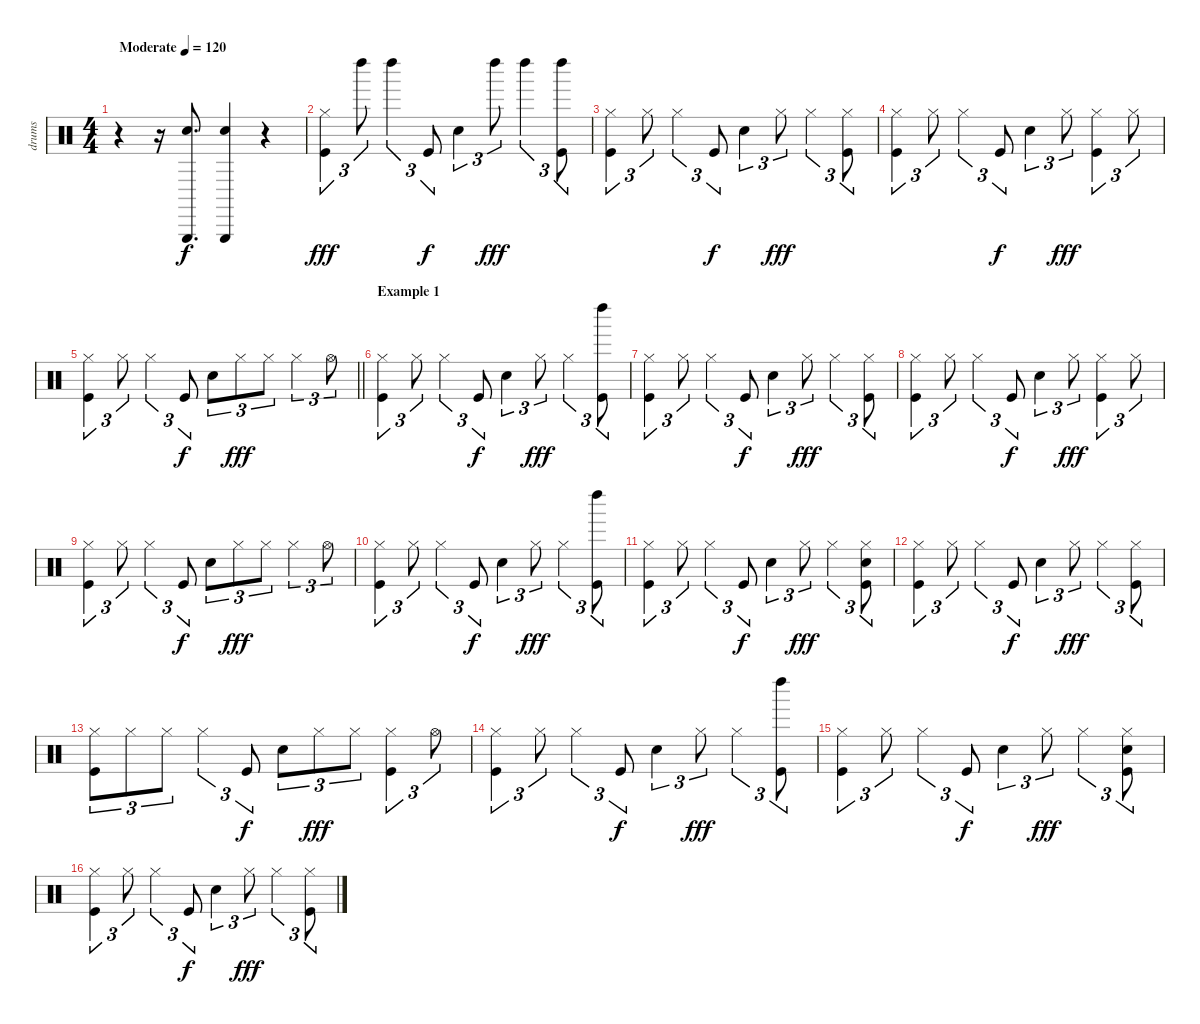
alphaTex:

\track ("drums" "drums") {instrument percussion}
\staff {score}
\articulation defaults
\ts (4 4)
\tempo (120 "Moderate")
\clef neutral
\ks c
r.4{dy f} r.16 ("Triangle (hit)" "Metronome (bell)").8{d} ("Triangle (hit)" "Metronome (bell)").4 r.4 |
("Hi-Hat (closed)" "Kick (hit)").4{tu (3 2) dy fff} "Left Maraca (hit)".8{tu (3 2)} "Left Maraca (hit)".4{tu (3 2)} "Kick (hit)".8{tu (3 2) dy f} "Snare (hit) 2".4{tu (3 2)} "Left Maraca (hit)".8{tu (3 2) dy fff} "Left Maraca (hit)".4{tu (3 2)} ("Left Maraca (hit)" "Kick (hit)").8{tu (3 2)} |
("Hi-Hat (closed)" "Kick (hit)").4{tu (3 2)} "Hi-Hat (closed)".8{tu (3 2)} "Hi-Hat (closed)".4{tu (3 2)} "Kick (hit)".8{tu (3 2) dy f} "Snare (hit) 2".4{tu (3 2)} "Hi-Hat (closed)".8{tu (3 2) dy fff} "Hi-Hat (closed)".4{tu (3 2)} ("Hi-Hat (closed)" "Kick (hit)").8{tu (3 2)} |
("Hi-Hat (closed)" "Kick (hit)").4{tu (3 2)} "Hi-Hat (closed)".8{tu (3 2)} "Hi-Hat (closed)".4{tu (3 2)} "Kick (hit)".8{tu (3 2) dy f} "Snare (hit) 2".4{tu (3 2)} "Hi-Hat (closed)".8{tu (3 2) dy fff} ("Hi-Hat (closed)" "Kick (hit)").4{tu (3 2)} "Hi-Hat (closed)".8{tu (3 2)} |
\barLineRight lightlight
("Hi-Hat (closed)" "Kick (hit)").4{tu (3 2)} "Hi-Hat (closed)".8{tu (3 2)} "Hi-Hat (closed)".4{tu (3 2)} "Kick (hit)".8{tu (3 2) dy f} "Snare (hit) 2".8{tu (3 2)} "Hi-Hat (closed)".8{tu (3 2) dy fff} "Hi-Hat (closed)".8{tu (3 2)} "Hi-Hat (closed)".4{tu (3 2)} "Hi-Hat (open)".8{tu (3 2)} |
\section ("" "Example 1")
("Hi-Hat (closed)" "Kick (hit)").4{tu (3 2)} "Hi-Hat (closed)".8{tu (3 2)} "Hi-Hat (closed)".4{tu (3 2)} "Kick (hit)".8{tu (3 2) dy f} "Snare (hit) 2".4{tu (3 2)} "Hi-Hat (closed)".8{tu (3 2) dy fff} "Hi-Hat (closed)".4{tu (3 2)} ("Left Maraca (hit)" "Kick (hit)").8{tu (3 2)} |
("Hi-Hat (closed)" "Kick (hit)").4{tu (3 2)} "Hi-Hat (closed)".8{tu (3 2)} "Hi-Hat (closed)".4{tu (3 2)} "Kick (hit)".8{tu (3 2) dy f} "Snare (hit) 2".4{tu (3 2)} "Hi-Hat (closed)".8{tu (3 2) dy fff} "Hi-Hat (closed)".4{tu (3 2)} ("Hi-Hat (closed)" "Kick (hit)").8{tu (3 2)} |
("Hi-Hat (closed)" "Kick (hit)").4{tu (3 2)} "Hi-Hat (closed)".8{tu (3 2)} "Hi-Hat (closed)".4{tu (3 2)} "Kick (hit)".8{tu (3 2) dy f} "Snare (hit) 2".4{tu (3 2)} "Hi-Hat (closed)".8{tu (3 2) dy fff} ("Hi-Hat (closed)" "Kick (hit)").4{tu (3 2)} "Hi-Hat (closed)".8{tu (3 2)} |
("Hi-Hat (closed)" "Kick (hit)").4{tu (3 2)} "Hi-Hat (closed)".8{tu (3 2)} "Hi-Hat (closed)".4{tu (3 2)} "Kick (hit)".8{tu (3 2) dy f} "Snare (hit) 2".8{tu (3 2)} "Hi-Hat (closed)".8{tu (3 2) dy fff} "Hi-Hat (closed)".8{tu (3 2)} "Hi-Hat (closed)".4{tu (3 2)} "Hi-Hat (open)".8{tu (3 2)} |
("Hi-Hat (closed)" "Kick (hit)").4{tu (3 2)} "Hi-Hat (closed)".8{tu (3 2)} "Hi-Hat (closed)".4{tu (3 2)} "Kick (hit)".8{tu (3 2) dy f} "Snare (hit) 2".4{tu (3 2)} "Hi-Hat (closed)".8{tu (3 2) dy fff} "Hi-Hat (closed)".4{tu (3 2)} ("Left Maraca (hit)" "Kick (hit)").8{tu (3 2)} |
("Hi-Hat (closed)" "Kick (hit)").4{tu (3 2)} "Hi-Hat (closed)".8{tu (3 2)} "Hi-Hat (closed)".4{tu (3 2)} "Kick (hit)".8{tu (3 2) dy f} "Snare (hit) 2".4{tu (3 2)} "Hi-Hat (closed)".8{tu (3 2) dy fff} "Hi-Hat (closed)".4{tu (3 2)} ("Snare (hit) 2" "Hi-Hat (closed)" "Kick (hit)").8{tu (3 2)} |
("Hi-Hat (closed)" "Kick (hit)").4{tu (3 2)} "Hi-Hat (closed)".8{tu (3 2)} "Hi-Hat (closed)".4{tu (3 2)} "Kick (hit)".8{tu (3 2) dy f} "Snare (hit) 2".4{tu (3 2)} "Hi-Hat (closed)".8{tu (3 2) dy fff} "Hi-Hat (closed)".4{tu (3 2)} ("Hi-Hat (closed)" "Kick (hit)").8{tu (3 2)} |
("Hi-Hat (closed)" "Kick (hit)").8{tu (3 2)} "Hi-Hat (closed)".8{tu (3 2)} "Hi-Hat (closed)".8{tu (3 2)} "Hi-Hat (closed)".4{tu (3 2)} "Kick (hit)".8{tu (3 2) dy f} "Snare (hit) 2".8{tu (3 2)} "Hi-Hat (closed)".8{tu (3 2) dy fff} "Hi-Hat (closed)".8{tu (3 2)} ("Hi-Hat (closed)" "Kick (hit)").4{tu (3 2)} "Hi-Hat (open)".8{tu (3 2)} |
("Hi-Hat (closed)" "Kick (hit)").4{tu (3 2)} "Hi-Hat (closed)".8{tu (3 2)} "Hi-Hat (closed)".4{tu (3 2)} "Kick (hit)".8{tu (3 2) dy f} "Snare (hit) 2".4{tu (3 2)} "Hi-Hat (closed)".8{tu (3 2) dy fff} "Hi-Hat (closed)".4{tu (3 2)} ("Left Maraca (hit)" "Kick (hit)").8{tu (3 2)} |
("Hi-Hat (closed)" "Kick (hit)").4{tu (3 2)} "Hi-Hat (closed)".8{tu (3 2)} "Hi-Hat (closed)".4{tu (3 2)} "Kick (hit)".8{tu (3 2) dy f} "Snare (hit) 2".4{tu (3 2)} "Hi-Hat (closed)".8{tu (3 2) dy fff} "Hi-Hat (closed)".4{tu (3 2)} ("Snare (hit) 2" "Hi-Hat (closed)" "Kick (hit)").8{tu (3 2)} |
("Hi-Hat (closed)" "Kick (hit)").4{tu (3 2)} "Hi-Hat (closed)".8{tu (3 2)} "Hi-Hat (closed)".4{tu (3 2)} "Kick (hit)".8{tu (3 2) dy f} "Snare (hit) 2".4{tu (3 2)} "Hi-Hat (closed)".8{tu (3 2) dy fff} "Hi-Hat (closed)".4{tu (3 2)} ("Hi-Hat (closed)" "Kick (hit)").8{tu (3 2)}
